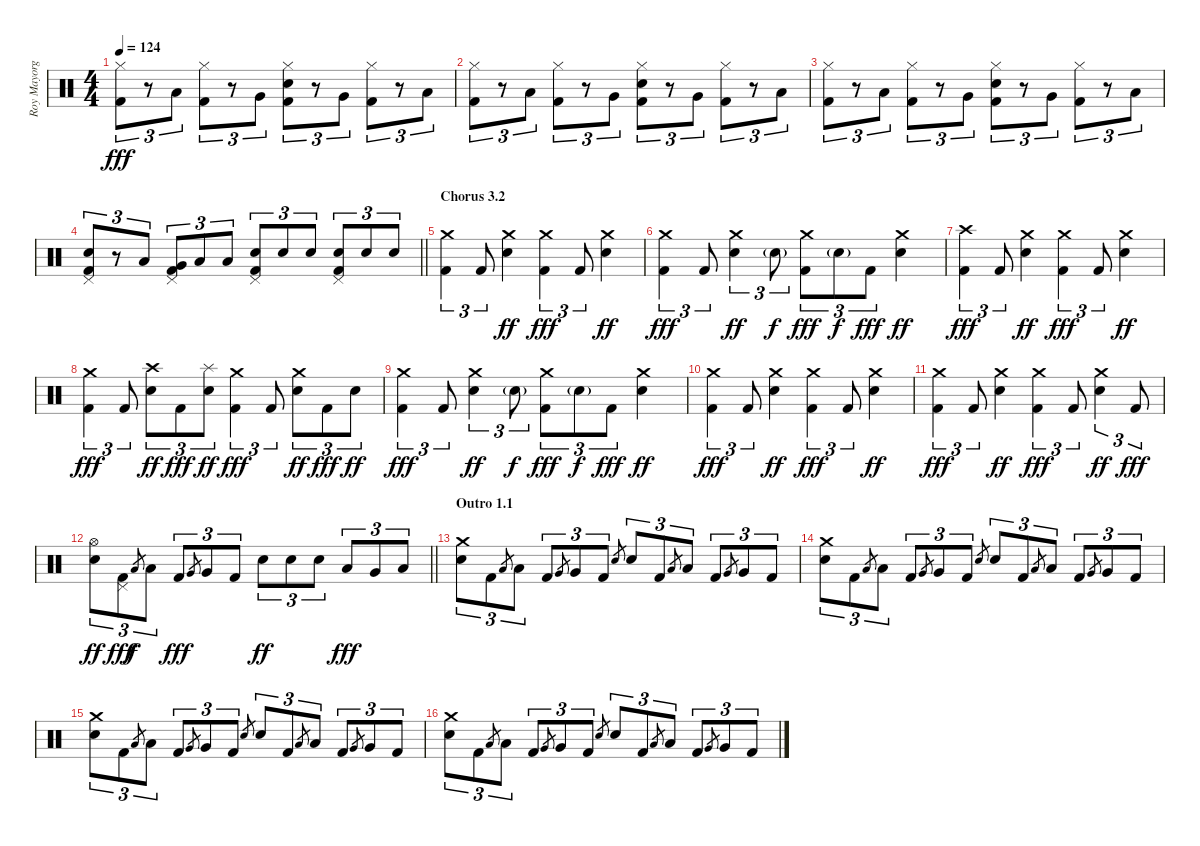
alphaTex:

\track ("Roy Mayorga" "Roy Mayorg") {instrument percussion}
\staff {score}
\articulation defaults
\ts (4 4)
\tempo 124
\clef neutral
\ks c
("Hi-Hat (closed)" "Kick (hit) 2").8{tu (3 2) dy fff} r.8{tu (3 2)} "Low Tom (hit)".8{tu (3 2)} ("Hi-Hat (closed)" "Kick (hit) 2").8{tu (3 2)} r.8{tu (3 2)} "Very Low Tom (hit)".8{tu (3 2)} ("Hi-Hat (closed)" "Electric Snare (hit)" "Kick (hit) 2").8{tu (3 2)} r.8{tu (3 2)} "Very Low Tom (hit)".8{tu (3 2)} ("Hi-Hat (closed)" "Kick (hit) 2").8{tu (3 2)} r.8{tu (3 2)} "Low Floor Tom (hit)".8{tu (3 2)} |
("Hi-Hat (closed)" "Kick (hit) 2").8{tu (3 2)} r.8{tu (3 2)} "Low Tom (hit)".8{tu (3 2)} ("Hi-Hat (closed)" "Kick (hit) 2").8{tu (3 2)} r.8{tu (3 2)} "Very Low Tom (hit)".8{tu (3 2)} ("Hi-Hat (closed)" "Electric Snare (hit)" "Kick (hit) 2").8{tu (3 2)} r.8{tu (3 2)} "Very Low Tom (hit)".8{tu (3 2)} ("Hi-Hat (closed)" "Kick (hit) 2").8{tu (3 2)} r.8{tu (3 2)} "Low Floor Tom (hit)".8{tu (3 2)} |
("Hi-Hat (closed)" "Kick (hit) 2").8{tu (3 2)} r.8{tu (3 2)} "Low Tom (hit)".8{tu (3 2)} ("Hi-Hat (closed)" "Kick (hit) 2").8{tu (3 2)} r.8{tu (3 2)} "Very Low Tom (hit)".8{tu (3 2)} ("Hi-Hat (closed)" "Electric Snare (hit)" "Kick (hit) 2").8{tu (3 2)} r.8{tu (3 2)} "Very Low Tom (hit)".8{tu (3 2)} ("Hi-Hat (closed)" "Kick (hit) 2").8{tu (3 2)} r.8{tu (3 2)} "Low Floor Tom (hit)".8{tu (3 2)} |
\barLineRight lightlight
("Electric Snare (hit)" "Pedal Hi-Hat (hit)" "Kick (hit) 2").8{tu (3 2)} r.8{tu (3 2)} "Low Tom (hit)".8{tu (3 2)} ("Very Low Tom (hit)" "Pedal Hi-Hat (hit)" "Kick (hit) 2").8{tu (3 2)} "Low Floor Tom (hit)".8{tu (3 2)} "Low Floor Tom (hit)".8{tu (3 2)} ("Electric Snare (hit)" "Pedal Hi-Hat (hit)" "Kick (hit) 2").8{tu (3 2)} "Electric Snare (hit)".8{tu (3 2)} "Electric Snare (hit)".8{tu (3 2)} ("Electric Snare (hit)" "Pedal Hi-Hat (hit)" "Kick (hit) 2").8{tu (3 2)} "Electric Snare (hit)".8{tu (3 2)} "Electric Snare (hit)".8{tu (3 2)} |
\section ("" "Chorus 3.2")
("Crash medium (hit)" "Kick (hit) 2").4{tu (3 2)} "Kick (hit) 2".8{tu (3 2)} ("Crash medium (hit)" "Electric Snare (hit)").4{dy ff} ("Crash medium (hit)" "Kick (hit) 2").4{tu (3 2) dy fff} "Kick (hit) 2".8{tu (3 2)} ("Crash medium (hit)" "Electric Snare (hit)").4{dy ff} |
("Crash medium (hit)" "Kick (hit) 2").4{tu (3 2) dy fff} "Kick (hit) 2".8{tu (3 2)} ("Crash medium (hit)" "Electric Snare (hit)").4{tu (3 2) dy ff} "Electric Snare (hit)"{g}.8{tu (3 2) dy f} ("Crash medium (hit)" "Kick (hit) 2").8{tu (3 2) dy fff} "Electric Snare (hit)"{g}.8{tu (3 2) dy f} "Kick (hit) 2".8{tu (3 2) dy fff} ("Crash medium (hit)" "Electric Snare (hit)").4{dy ff} |
("Crash high (hit)" "Kick (hit) 2").4{tu (3 2) dy fff} "Kick (hit) 2".8{tu (3 2)} ("Crash medium (hit)" "Electric Snare (hit)").4{dy ff} ("Crash medium (hit)" "Kick (hit) 2").4{tu (3 2) dy fff} "Kick (hit) 2".8{tu (3 2)} ("Crash medium (hit)" "Electric Snare (hit)").4{dy ff} |
("Crash medium (hit)" "Kick (hit) 2").4{tu (3 2) dy fff} "Kick (hit) 2".8{tu (3 2)} ("Crash high (hit)" "Electric Snare (hit)").8{tu (3 2) dy ff} "Kick (hit) 2".8{tu (3 2) dy fff} ("Splash (hit)" "Electric Snare (hit)").8{tu (3 2) dy ff} ("Crash medium (hit)" "Kick (hit) 2").4{tu (3 2) dy fff} "Kick (hit) 2".8{tu (3 2)} ("Crash medium (hit)" "Electric Snare (hit)").8{tu (3 2) dy ff} "Kick (hit) 2".8{tu (3 2) dy fff} "Electric Snare (hit)".8{tu (3 2) dy ff} |
("Crash medium (hit)" "Kick (hit) 2").4{tu (3 2) dy fff} "Kick (hit) 2".8{tu (3 2)} ("Crash medium (hit)" "Electric Snare (hit)").4{tu (3 2) dy ff} "Electric Snare (hit)"{g}.8{tu (3 2) dy f} ("Crash medium (hit)" "Kick (hit) 2").8{tu (3 2) dy fff} "Electric Snare (hit)"{g}.8{tu (3 2) dy f} "Kick (hit) 2".8{tu (3 2) dy fff} ("Crash medium (hit)" "Electric Snare (hit)").4{dy ff} |
("Crash medium (hit)" "Kick (hit) 2").4{tu (3 2) dy fff} "Kick (hit) 2".8{tu (3 2)} ("Crash medium (hit)" "Electric Snare (hit)").4{dy ff} ("Crash medium (hit)" "Kick (hit) 2").4{tu (3 2) dy fff} "Kick (hit) 2".8{tu (3 2)} ("Crash medium (hit)" "Electric Snare (hit)").4{dy ff} |
("Crash medium (hit)" "Kick (hit) 2").4{tu (3 2) dy fff} "Kick (hit) 2".8{tu (3 2)} ("Crash medium (hit)" "Electric Snare (hit)").4{dy ff} ("Crash medium (hit)" "Kick (hit) 2").4{tu (3 2) dy fff} "Kick (hit) 2".8{tu (3 2)} ("Crash medium (hit)" "Electric Snare (hit)").4{tu (3 2) dy ff} "Kick (hit) 2".8{tu (3 2) dy fff} |
\barLineRight lightlight
("Hi-Hat (open)" "Electric Snare (hit)").8{tu (3 2) dy ff} ("Pedal Hi-Hat (hit)" "Kick (hit) 2").8{tu (3 2) dy fff} "Low Tom (hit)".8{gr dy f} "Low Tom (hit)".8{tu (3 2)} "Kick (hit) 2".8{tu (3 2) dy fff} "Very Low Tom (hit)".8{gr} "Very Low Tom (hit)".8{tu (3 2)} "Kick (hit) 2".8{tu (3 2)} "Electric Snare (hit)".8{tu (3 2) dy ff} "Electric Snare (hit)".8{tu (3 2)} "Electric Snare (hit)".8{tu (3 2)} "Low Tom (hit)".8{tu (3 2) dy fff} "Very Low Tom (hit)".8{tu (3 2)} "Low Floor Tom (hit)".8{tu (3 2)} |
\section ("" "Outro 1.1")
("Crash medium (hit)" "Electric Snare (hit)").8{tu (3 2)} "Kick (hit) 2".8{tu (3 2)} "Low Tom (hit)".8{gr} "Low Tom (hit)".8{tu (3 2)} "Kick (hit) 2".8{tu (3 2)} "Very Low Tom (hit)".8{gr} "Very Low Tom (hit)".8{tu (3 2)} "Kick (hit) 2".8{tu (3 2)} "Electric Snare (hit)".8{gr} "Electric Snare (hit)".8{tu (3 2)} "Kick (hit) 2".8{tu (3 2)} "Low Tom (hit)".8{gr} "Low Tom (hit)".8{tu (3 2)} "Kick (hit) 2".8{tu (3 2)} "Very Low Tom (hit)".8{gr} "Very Low Tom (hit)".8{tu (3 2)} "Kick (hit) 2".8{tu (3 2)} |
("Crash medium (hit)" "Electric Snare (hit)").8{tu (3 2)} "Kick (hit) 2".8{tu (3 2)} "Low Tom (hit)".8{gr} "Low Tom (hit)".8{tu (3 2)} "Kick (hit) 2".8{tu (3 2)} "Very Low Tom (hit)".8{gr} "Very Low Tom (hit)".8{tu (3 2)} "Kick (hit) 2".8{tu (3 2)} "Electric Snare (hit)".8{gr} "Electric Snare (hit)".8{tu (3 2)} "Kick (hit) 2".8{tu (3 2)} "Low Tom (hit)".8{gr} "Low Tom (hit)".8{tu (3 2)} "Kick (hit) 2".8{tu (3 2)} "Very Low Tom (hit)".8{gr} "Very Low Tom (hit)".8{tu (3 2)} "Kick (hit) 2".8{tu (3 2)} |
("Crash medium (hit)" "Electric Snare (hit)").8{tu (3 2)} "Kick (hit) 2".8{tu (3 2)} "Low Tom (hit)".8{gr} "Low Tom (hit)".8{tu (3 2)} "Kick (hit) 2".8{tu (3 2)} "Very Low Tom (hit)".8{gr} "Very Low Tom (hit)".8{tu (3 2)} "Kick (hit) 2".8{tu (3 2)} "Electric Snare (hit)".8{gr} "Electric Snare (hit)".8{tu (3 2)} "Kick (hit) 2".8{tu (3 2)} "Low Tom (hit)".8{gr} "Low Tom (hit)".8{tu (3 2)} "Kick (hit) 2".8{tu (3 2)} "Very Low Tom (hit)".8{gr} "Very Low Tom (hit)".8{tu (3 2)} "Kick (hit) 2".8{tu (3 2)} |
("Crash medium (hit)" "Electric Snare (hit)").8{tu (3 2)} "Kick (hit) 2".8{tu (3 2)} "Low Tom (hit)".8{gr} "Low Tom (hit)".8{tu (3 2)} "Kick (hit) 2".8{tu (3 2)} "Very Low Tom (hit)".8{gr} "Very Low Tom (hit)".8{tu (3 2)} "Kick (hit) 2".8{tu (3 2)} "Electric Snare (hit)".8{gr} "Electric Snare (hit)".8{tu (3 2)} "Kick (hit) 2".8{tu (3 2)} "Low Tom (hit)".8{gr} "Low Tom (hit)".8{tu (3 2)} "Kick (hit) 2".8{tu (3 2)} "Very Low Tom (hit)".8{gr} "Very Low Tom (hit)".8{tu (3 2)} "Kick (hit) 2".8{tu (3 2)}
